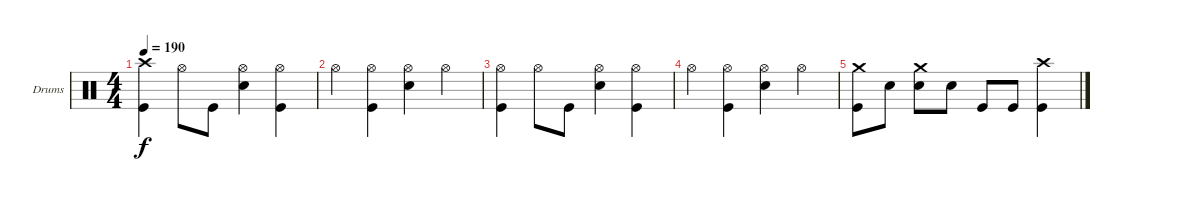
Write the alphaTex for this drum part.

\defaultSystemsLayout 4
\bracketExtendMode groupsimilarinstruments
\firstSystemTrackNameOrientation horizontal
\otherSystemsTrackNameOrientation horizontal
\track ("Drumkit" "Drums") {instrument percussion}
\staff {score}
\articulation defaults
\ts (4 4)
\tempo 190
\clef neutral
\ks c
("Kick (hit)" "Crash high (hit)").4{dy f} "Hi-Hat (open)".8 "Kick (hit)".8 ("Snare (hit) 2" "Hi-Hat (open)").4 ("Kick (hit)" "Hi-Hat (open)").4 |
"Hi-Hat (open)".4 ("Kick (hit)" "Hi-Hat (open)").4 ("Snare (hit) 2" "Hi-Hat (open)").4 "Hi-Hat (open)".4 |
("Kick (hit)" "Hi-Hat (open)").4 "Hi-Hat (open)".8 "Kick (hit)".8 ("Snare (hit) 2" "Hi-Hat (open)").4 ("Kick (hit)" "Hi-Hat (open)").4 |
"Hi-Hat (open)".4 ("Kick (hit)" "Hi-Hat (open)").4 ("Snare (hit) 2" "Hi-Hat (open)").4 "Hi-Hat (open)".4 |
("Kick (hit)" "Crash medium (hit)").8 "Snare (hit) 2".8 ("Snare (hit) 2" "Crash medium (hit)").8 "Snare (hit) 2".8 "Kick (hit)".8 "Kick (hit)".8 ("Kick (hit)" "Crash high (hit)").4
